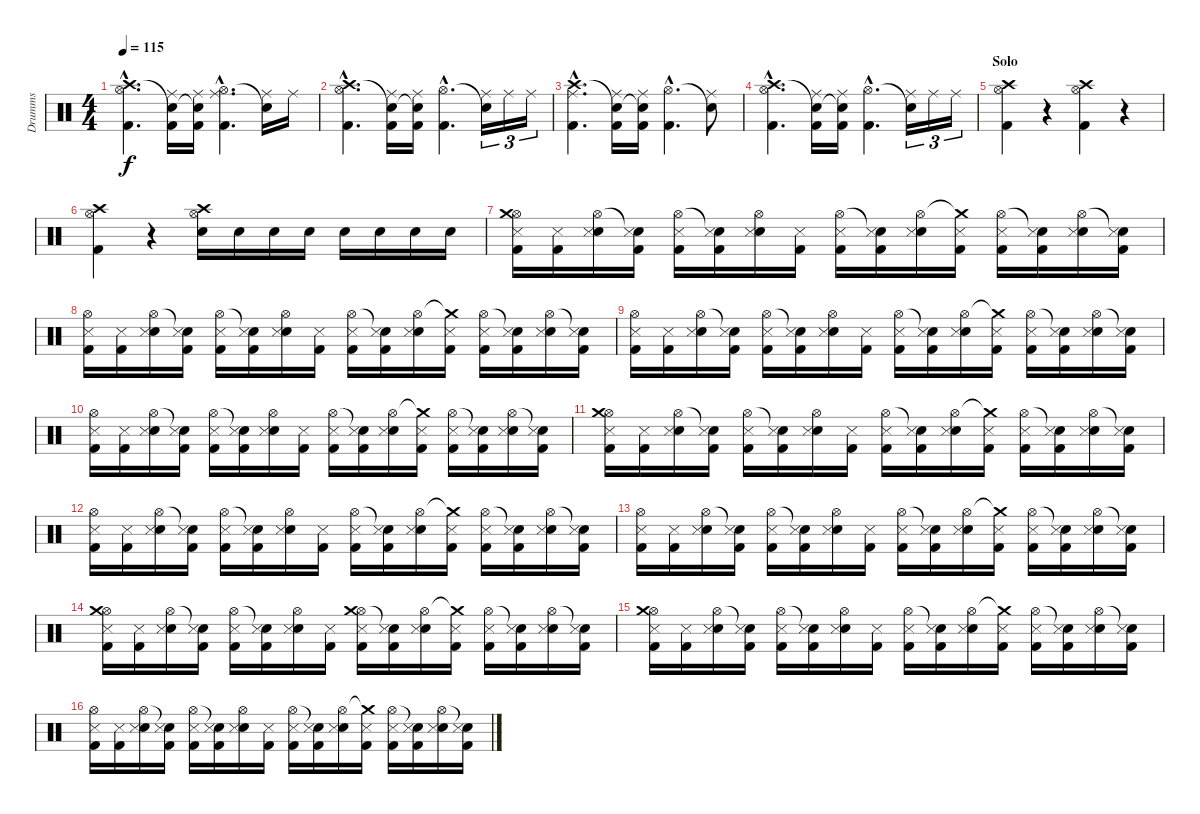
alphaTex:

\track ("Drumms" "Drumms") {instrument percussion}
\staff {score}
\articulation defaults
\ts (4 4)
\tempo 115
\clef neutral
\ks c
("Crash high (hit)"{hac} "Hi-Hat (open)"{hac} "Kick (hit) 2"{hac}).4{d dy f} ("Snare (hit)"{t} "Kick (hit) 2" "Ride (middle)").16 ("Snare (hit)"{t} "Kick (hit) 2" "Ride (middle)").16 ("Hi-Hat (open)"{hac} "Kick (hit) 2"{hac} "Ride (middle)"{hac}).4{d} ("Snare (hit)"{t} "Ride (middle)").16 "Ride (middle)".16 |
("Crash high (hit)"{hac} "Hi-Hat (open)"{hac} "Kick (hit) 2"{hac}).4{d} ("Snare (hit)"{t} "Kick (hit) 2" "Ride (middle)").16 ("Snare (hit)"{t} "Kick (hit) 2" "Ride (middle)").16 ("Hi-Hat (open)"{hac} "Kick (hit) 2"{hac}).4{d} ("Snare (hit)"{t} "Ride (middle)").16{tu (3 2)} "Ride (middle)".16{tu (3 2)} "Ride (middle)".16{tu (3 2)} |
("Crash high (hit)"{hac} "Ride (middle)"{hac} "Kick (hit) 2"{hac}).4{d} ("Snare (hit)"{t} "Kick (hit) 2" "Ride (middle)").16 ("Snare (hit)"{t} "Kick (hit) 2" "Ride (middle)").16 ("Hi-Hat (open)"{hac} "Kick (hit) 2"{hac}).4{d} ("Snare (hit)"{t} "Ride (middle)").8 |
("Crash high (hit)"{hac} "Hi-Hat (open)"{hac} "Kick (hit) 2"{hac}).4{d} ("Snare (hit)"{t} "Kick (hit) 2" "Ride (middle)").16 ("Snare (hit)"{t} "Kick (hit) 2" "Ride (middle)").16 ("Hi-Hat (open)"{hac} "Kick (hit) 2"{hac}).4{d} ("Snare (hit)"{t} "Ride (middle)").16{tu (3 2)} "Ride (middle)".16{tu (3 2)} "Ride (middle)".16{tu (3 2)} |
\section ("" "Solo")
("Hi-Hat (open)" "Crash high (hit)" "Kick (hit) 2").4 r.4 ("Hi-Hat (open)" "Crash high (hit)" "Kick (hit) 2").4 r.4 |
("Crash high (hit)" "Hi-Hat (open)" "Kick (hit) 2").4 r.4 ("Crash high (hit)" "Hi-Hat (open)" "Electric Snare (hit)").16 "Electric Snare (hit)".16 "Electric Snare (hit)".16 "Electric Snare (hit)".16 "Electric Snare (hit)".16 "Electric Snare (hit)".16 "Snare (hit) 2".16 "Snare (hit) 2".16 |
("Hi-Hat (open)" "Crash medium (hit)" "Kick (hit) 2" "Snare (side stick) 3").16 ("Kick (hit) 2" "Snare (side stick) 3").16 ("Hi-Hat (open)" "Electric Snare (hit)" "Snare (side stick) 3").16 ("Snare (hit)"{t} "Kick (hit) 2" "Snare (side stick) 3").16 ("Hi-Hat (open)" "Kick (hit) 2" "Snare (side stick) 3").16 ("Snare (hit)"{t} "Kick (hit) 2" "Snare (side stick) 3").16 ("Hi-Hat (open)" "Electric Snare (hit)" "Snare (side stick) 3").16 ("Kick (hit) 2" "Snare (side stick) 3").16 ("Hi-Hat (open)" "Kick (hit) 2" "Snare (side stick) 3").16 ("Snare (hit)"{t} "Kick (hit) 2" "Snare (side stick) 3").16 ("Hi-Hat (open)" "Electric Snare (hit)" "Snare (side stick) 3").16 ("Crash medium (hit)"{t} "Kick (hit) 2" "Snare (side stick) 3").16 ("Hi-Hat (open)" "Kick (hit) 2" "Snare (side stick) 3").16 ("Snare (hit)"{t} "Kick (hit) 2" "Snare (side stick) 3").16 ("Hi-Hat (open)" "Electric Snare (hit)" "Snare (side stick) 3").16 ("Snare (hit)"{t} "Kick (hit) 2" "Snare (side stick) 3").16 |
("Hi-Hat (open)" "Kick (hit) 2" "Snare (side stick) 3").16 ("Kick (hit) 2" "Snare (side stick) 3").16 ("Hi-Hat (open)" "Electric Snare (hit)" "Snare (side stick) 3").16 ("Snare (hit)"{t} "Kick (hit) 2" "Snare (side stick) 3").16 ("Hi-Hat (open)" "Kick (hit) 2" "Snare (side stick) 3").16 ("Snare (hit)"{t} "Kick (hit) 2" "Snare (side stick) 3").16 ("Hi-Hat (open)" "Electric Snare (hit)" "Snare (side stick) 3").16 ("Kick (hit) 2" "Snare (side stick) 3").16 ("Hi-Hat (open)" "Kick (hit) 2" "Snare (side stick) 3").16 ("Snare (hit)"{t} "Kick (hit) 2" "Snare (side stick) 3").16 ("Hi-Hat (open)" "Electric Snare (hit)" "Snare (side stick) 3").16 ("Crash medium (hit)"{t} "Kick (hit) 2" "Snare (side stick) 3").16 ("Hi-Hat (open)" "Kick (hit) 2" "Snare (side stick) 3").16 ("Snare (hit)"{t} "Kick (hit) 2" "Snare (side stick) 3").16 ("Hi-Hat (open)" "Electric Snare (hit)" "Snare (side stick) 3").16 ("Snare (hit)"{t} "Kick (hit) 2" "Snare (side stick) 3").16 |
("Hi-Hat (open)" "Kick (hit) 2" "Snare (side stick) 3").16 ("Kick (hit) 2" "Snare (side stick) 3").16 ("Hi-Hat (open)" "Electric Snare (hit)" "Snare (side stick) 3").16 ("Snare (hit)"{t} "Kick (hit) 2" "Snare (side stick) 3").16 ("Hi-Hat (open)" "Kick (hit) 2" "Snare (side stick) 3").16 ("Snare (hit)"{t} "Kick (hit) 2" "Snare (side stick) 3").16 ("Hi-Hat (open)" "Electric Snare (hit)" "Snare (side stick) 3").16 ("Kick (hit) 2" "Snare (side stick) 3").16 ("Hi-Hat (open)" "Kick (hit) 2" "Snare (side stick) 3").16 ("Snare (hit)"{t} "Kick (hit) 2" "Snare (side stick) 3").16 ("Hi-Hat (open)" "Electric Snare (hit)" "Snare (side stick) 3").16 ("Crash medium (hit)"{t} "Kick (hit) 2" "Snare (side stick) 3").16 ("Hi-Hat (open)" "Kick (hit) 2" "Snare (side stick) 3").16 ("Snare (hit)"{t} "Kick (hit) 2" "Snare (side stick) 3").16 ("Hi-Hat (open)" "Electric Snare (hit)" "Snare (side stick) 3").16 ("Snare (hit)"{t} "Kick (hit) 2" "Snare (side stick) 3").16 |
("Hi-Hat (open)" "Kick (hit) 2" "Snare (side stick) 3").16 ("Kick (hit) 2" "Snare (side stick) 3").16 ("Hi-Hat (open)" "Electric Snare (hit)" "Snare (side stick) 3").16 ("Snare (hit)"{t} "Kick (hit) 2" "Snare (side stick) 3").16 ("Hi-Hat (open)" "Kick (hit) 2" "Snare (side stick) 3").16 ("Snare (hit)"{t} "Kick (hit) 2" "Snare (side stick) 3").16 ("Hi-Hat (open)" "Electric Snare (hit)" "Snare (side stick) 3").16 ("Kick (hit) 2" "Snare (side stick) 3").16 ("Hi-Hat (open)" "Kick (hit) 2" "Snare (side stick) 3").16 ("Snare (hit)"{t} "Kick (hit) 2" "Snare (side stick) 3").16 ("Hi-Hat (open)" "Electric Snare (hit)" "Snare (side stick) 3").16 ("Crash medium (hit)"{t} "Kick (hit) 2" "Snare (side stick) 3").16 ("Hi-Hat (open)" "Kick (hit) 2" "Snare (side stick) 3").16 ("Snare (hit)"{t} "Kick (hit) 2" "Snare (side stick) 3").16 ("Hi-Hat (open)" "Electric Snare (hit)" "Snare (side stick) 3").16 ("Snare (hit)"{t} "Kick (hit) 2" "Snare (side stick) 3").16 |
("Hi-Hat (open)" "Crash medium (hit)" "Kick (hit) 2" "Snare (side stick) 3").16 ("Kick (hit) 2" "Snare (side stick) 3").16 ("Hi-Hat (open)" "Electric Snare (hit)" "Snare (side stick) 3").16 ("Snare (hit)"{t} "Kick (hit) 2" "Snare (side stick) 3").16 ("Hi-Hat (open)" "Kick (hit) 2" "Snare (side stick) 3").16 ("Snare (hit)"{t} "Kick (hit) 2" "Snare (side stick) 3").16 ("Hi-Hat (open)" "Electric Snare (hit)" "Snare (side stick) 3").16 ("Kick (hit) 2" "Snare (side stick) 3").16 ("Hi-Hat (open)" "Kick (hit) 2" "Snare (side stick) 3").16 ("Snare (hit)"{t} "Kick (hit) 2" "Snare (side stick) 3").16 ("Hi-Hat (open)" "Electric Snare (hit)" "Snare (side stick) 3").16 ("Crash medium (hit)"{t} "Kick (hit) 2" "Snare (side stick) 3").16 ("Hi-Hat (open)" "Kick (hit) 2" "Snare (side stick) 3").16 ("Snare (hit)"{t} "Kick (hit) 2" "Snare (side stick) 3").16 ("Hi-Hat (open)" "Electric Snare (hit)" "Snare (side stick) 3").16 ("Snare (hit)"{t} "Kick (hit) 2" "Snare (side stick) 3").16 |
("Hi-Hat (open)" "Kick (hit) 2" "Snare (side stick) 3").16 ("Kick (hit) 2" "Snare (side stick) 3").16 ("Hi-Hat (open)" "Electric Snare (hit)" "Snare (side stick) 3").16 ("Snare (hit)"{t} "Kick (hit) 2" "Snare (side stick) 3").16 ("Hi-Hat (open)" "Kick (hit) 2" "Snare (side stick) 3").16 ("Snare (hit)"{t} "Kick (hit) 2" "Snare (side stick) 3").16 ("Hi-Hat (open)" "Electric Snare (hit)" "Snare (side stick) 3").16 ("Kick (hit) 2" "Snare (side stick) 3").16 ("Hi-Hat (open)" "Kick (hit) 2" "Snare (side stick) 3").16 ("Snare (hit)"{t} "Kick (hit) 2" "Snare (side stick) 3").16 ("Hi-Hat (open)" "Electric Snare (hit)" "Snare (side stick) 3").16 ("Crash medium (hit)"{t} "Kick (hit) 2" "Snare (side stick) 3").16 ("Hi-Hat (open)" "Kick (hit) 2" "Snare (side stick) 3").16 ("Snare (hit)"{t} "Kick (hit) 2" "Snare (side stick) 3").16 ("Hi-Hat (open)" "Electric Snare (hit)" "Snare (side stick) 3").16 ("Snare (hit)"{t} "Kick (hit) 2" "Snare (side stick) 3").16 |
("Hi-Hat (open)" "Kick (hit) 2" "Snare (side stick) 3").16 ("Kick (hit) 2" "Snare (side stick) 3").16 ("Hi-Hat (open)" "Electric Snare (hit)" "Snare (side stick) 3").16 ("Snare (hit)"{t} "Kick (hit) 2" "Snare (side stick) 3").16 ("Hi-Hat (open)" "Kick (hit) 2" "Snare (side stick) 3").16 ("Snare (hit)"{t} "Kick (hit) 2" "Snare (side stick) 3").16 ("Hi-Hat (open)" "Electric Snare (hit)" "Snare (side stick) 3").16 ("Kick (hit) 2" "Snare (side stick) 3").16 ("Hi-Hat (open)" "Kick (hit) 2" "Snare (side stick) 3").16 ("Snare (hit)"{t} "Kick (hit) 2" "Snare (side stick) 3").16 ("Hi-Hat (open)" "Electric Snare (hit)" "Snare (side stick) 3").16 ("Crash medium (hit)"{t} "Kick (hit) 2" "Snare (side stick) 3").16 ("Hi-Hat (open)" "Kick (hit) 2" "Snare (side stick) 3").16 ("Snare (hit)"{t} "Kick (hit) 2" "Snare (side stick) 3").16 ("Hi-Hat (open)" "Electric Snare (hit)" "Snare (side stick) 3").16 ("Snare (hit)"{t} "Kick (hit) 2" "Snare (side stick) 3").16 |
("Hi-Hat (open)" "Crash medium (hit)" "Kick (hit) 2" "Snare (side stick) 3").16 ("Kick (hit) 2" "Snare (side stick) 3").16 ("Hi-Hat (open)" "Electric Snare (hit)" "Snare (side stick) 3").16 ("Snare (hit)"{t} "Kick (hit) 2" "Snare (side stick) 3").16 ("Hi-Hat (open)" "Kick (hit) 2" "Snare (side stick) 3").16 ("Snare (hit)"{t} "Kick (hit) 2" "Snare (side stick) 3").16 ("Hi-Hat (open)" "Electric Snare (hit)" "Snare (side stick) 3").16 ("Kick (hit) 2" "Snare (side stick) 3").16 ("Hi-Hat (open)" "Crash medium (hit)" "Kick (hit) 2" "Snare (side stick) 3").16 ("Snare (hit)"{t} "Kick (hit) 2" "Snare (side stick) 3").16 ("Hi-Hat (open)" "Electric Snare (hit)" "Snare (side stick) 3").16 ("Crash medium (hit)"{t} "Kick (hit) 2" "Snare (side stick) 3").16 ("Hi-Hat (open)" "Kick (hit) 2" "Snare (side stick) 3").16 ("Snare (hit)"{t} "Kick (hit) 2" "Snare (side stick) 3").16 ("Hi-Hat (open)" "Electric Snare (hit)" "Snare (side stick) 3").16 ("Snare (hit)"{t} "Kick (hit) 2" "Snare (side stick) 3").16 |
("Hi-Hat (open)" "Crash medium (hit)" "Kick (hit) 2" "Snare (side stick) 3").16 ("Kick (hit) 2" "Snare (side stick) 3").16 ("Hi-Hat (open)" "Electric Snare (hit)" "Snare (side stick) 3").16 ("Snare (hit)"{t} "Kick (hit) 2" "Snare (side stick) 3").16 ("Hi-Hat (open)" "Kick (hit) 2" "Snare (side stick) 3").16 ("Snare (hit)"{t} "Kick (hit) 2" "Snare (side stick) 3").16 ("Hi-Hat (open)" "Electric Snare (hit)" "Snare (side stick) 3").16 ("Kick (hit) 2" "Snare (side stick) 3").16 ("Hi-Hat (open)" "Kick (hit) 2" "Snare (side stick) 3").16 ("Snare (hit)"{t} "Kick (hit) 2" "Snare (side stick) 3").16 ("Hi-Hat (open)" "Electric Snare (hit)" "Snare (side stick) 3").16 ("Crash medium (hit)"{t} "Kick (hit) 2" "Snare (side stick) 3").16 ("Hi-Hat (open)" "Kick (hit) 2" "Snare (side stick) 3").16 ("Snare (hit)"{t} "Kick (hit) 2" "Snare (side stick) 3").16 ("Hi-Hat (open)" "Electric Snare (hit)" "Snare (side stick) 3").16 ("Snare (hit)"{t} "Kick (hit) 2" "Snare (side stick) 3").16 |
("Hi-Hat (open)" "Kick (hit) 2" "Snare (side stick) 3").16 ("Kick (hit) 2" "Snare (side stick) 3").16 ("Hi-Hat (open)" "Electric Snare (hit)" "Snare (side stick) 3").16 ("Snare (hit)"{t} "Kick (hit) 2" "Snare (side stick) 3").16 ("Hi-Hat (open)" "Kick (hit) 2" "Snare (side stick) 3").16 ("Snare (hit)"{t} "Kick (hit) 2" "Snare (side stick) 3").16 ("Hi-Hat (open)" "Electric Snare (hit)" "Snare (side stick) 3").16 ("Kick (hit) 2" "Snare (side stick) 3").16 ("Hi-Hat (open)" "Kick (hit) 2" "Snare (side stick) 3").16 ("Snare (hit)"{t} "Kick (hit) 2" "Snare (side stick) 3").16 ("Hi-Hat (open)" "Electric Snare (hit)" "Snare (side stick) 3").16 ("Crash medium (hit)"{t} "Kick (hit) 2" "Snare (side stick) 3").16 ("Hi-Hat (open)" "Kick (hit) 2" "Snare (side stick) 3").16 ("Snare (hit)"{t} "Kick (hit) 2" "Snare (side stick) 3").16 ("Hi-Hat (open)" "Electric Snare (hit)" "Snare (side stick) 3").16 ("Snare (hit)"{t} "Kick (hit) 2" "Snare (side stick) 3").16
